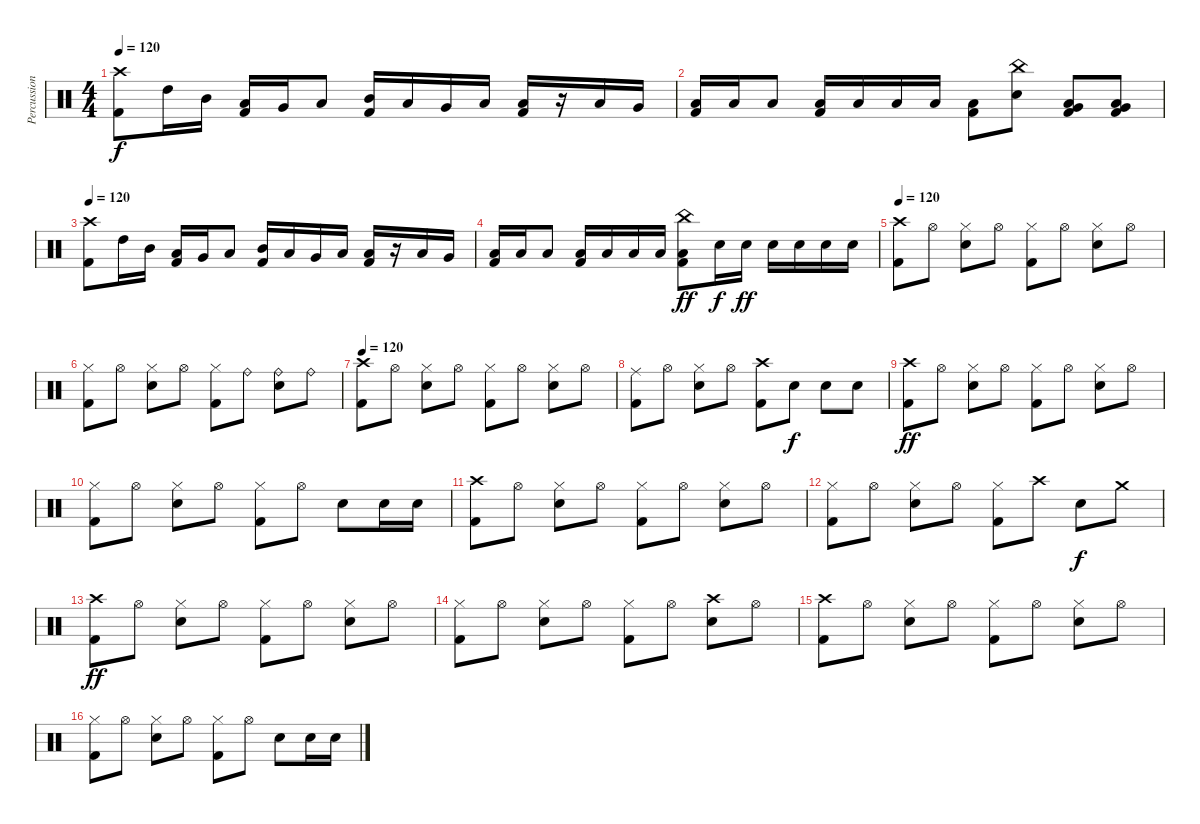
\track ("Percussion" "Percussion") {instrument percussion}
\staff {score}
\articulation defaults
\ts (4 4)
\tempo 120
\clef neutral
\ks c
("Crash high (hit)" "Kick (hit) 2").8{dy f} "High Tom (hit)".16 "Mid Tom (hit)".16 ("Low Tom (hit)" "Kick (hit) 2").16 "Very Low Tom (hit)".16 "Low Floor Tom (hit)".8 ("Mid Tom (hit)" "Kick (hit) 2").16 "Low Tom (hit)".16 "Very Low Tom (hit)".16 "Low Floor Tom (hit)".16 ("Low Floor Tom (hit)" "Kick (hit) 2").16 r.16 "Low Tom (hit)".16 "Very Low Tom (hit)".16 |
("Low Floor Tom (hit)" "Kick (hit) 2").16 "Low Floor Tom (hit)".16 "Low Floor Tom (hit)".8 ("Low Floor Tom (hit)" "Kick (hit) 2").16 "Low Floor Tom (hit)".16 "Low Floor Tom (hit)".16 "Low Floor Tom (hit)".16 ("Low Floor Tom (hit)" "Kick (hit) 2").8 ("China (hit)" "Snare (hit) 2").8 ("Very Low Tom (hit)" "Low Floor Tom (hit)" "Kick (hit) 2").8 ("Very Low Tom (hit)" "Low Floor Tom (hit)" "Kick (hit) 2").8 |
\tempo 120
("Crash high (hit)" "Kick (hit) 2").8 "High Tom (hit)".16 "Mid Tom (hit)".16 ("Low Tom (hit)" "Kick (hit) 2").16 "Very Low Tom (hit)".16 "Low Floor Tom (hit)".8 ("Mid Tom (hit)" "Kick (hit) 2").16 "Low Tom (hit)".16 "Very Low Tom (hit)".16 "Low Floor Tom (hit)".16 ("Low Floor Tom (hit)" "Kick (hit) 2").16 r.16 "Low Tom (hit)".16 "Very Low Tom (hit)".16 |
("Low Floor Tom (hit)" "Kick (hit) 2").16 "Low Floor Tom (hit)".16 "Low Floor Tom (hit)".8 ("Low Floor Tom (hit)" "Kick (hit) 2").16 "Low Floor Tom (hit)".16 "Low Floor Tom (hit)".16 "Low Floor Tom (hit)".16 ("China (hit)" "Low Floor Tom (hit)" "Kick (hit) 2").8{dy ff} "Snare (hit) 2".16{dy f} "Snare (hit) 2".16{dy ff} "Snare (hit) 2".16 "Snare (hit) 2".16 "Snare (hit) 2".16 "Snare (hit) 2".16 |
\tempo 120
("Crash high (hit)" "Kick (hit) 2").8 "Hi-Hat (open)".8 ("Hi-Hat (closed)" "Snare (hit) 2").8 "Hi-Hat (open)".8 ("Hi-Hat (closed)" "Kick (hit) 2").8 "Hi-Hat (open)".8 ("Hi-Hat (closed)" "Snare (hit) 2").8 "Hi-Hat (open)".8 |
("Hi-Hat (closed)" "Kick (hit) 2").8 "Hi-Hat (open)".8 ("Hi-Hat (closed)" "Snare (hit) 2").8 "Hi-Hat (open)".8 ("Hi-Hat (closed)" "Kick (hit) 2").8 "Ride (bell)".8 ("Ride (bell)" "Snare (hit) 2").8 "Ride (bell)".8 |
\tempo 120
("Crash high (hit)" "Kick (hit) 2").8 "Hi-Hat (open)".8 ("Hi-Hat (closed)" "Snare (hit) 2").8 "Hi-Hat (open)".8 ("Hi-Hat (closed)" "Kick (hit) 2").8 "Hi-Hat (open)".8 ("Hi-Hat (closed)" "Snare (hit) 2").8 "Hi-Hat (open)".8 |
("Ride (middle)" "Kick (hit) 2").8 "Hi-Hat (open)".8 ("Hi-Hat (closed)" "Snare (hit) 2").8 "Hi-Hat (open)".8 ("Crash high (hit)" "Kick (hit) 2").8 "Snare (hit) 2".8{dy f} "Snare (hit) 2".8 "Snare (hit) 2".8 |
("Crash high (hit)" "Kick (hit) 2").8{dy ff} "Hi-Hat (open)".8 ("Hi-Hat (closed)" "Snare (hit) 2").8 "Hi-Hat (open)".8 ("Hi-Hat (closed)" "Kick (hit) 2").8 "Hi-Hat (open)".8 ("Hi-Hat (closed)" "Snare (hit) 2").8 "Hi-Hat (open)".8 |
("Hi-Hat (closed)" "Kick (hit) 2").8 "Hi-Hat (open)".8 ("Hi-Hat (closed)" "Snare (hit) 2").8 "Hi-Hat (open)".8 ("Hi-Hat (closed)" "Kick (hit) 2").8 "Hi-Hat (open)".8 "Snare (hit) 2".8 "Snare (hit) 2".16 "Snare (hit) 2".16 |
("Crash high (hit)" "Kick (hit) 2").8 "Hi-Hat (open)".8 ("Hi-Hat (closed)" "Snare (hit) 2").8 "Hi-Hat (open)".8 ("Hi-Hat (closed)" "Kick (hit) 2").8 "Hi-Hat (open)".8 ("Hi-Hat (closed)" "Snare (hit) 2").8 "Hi-Hat (open)".8 |
("Hi-Hat (closed)" "Kick (hit) 2").8 "Hi-Hat (open)".8 ("Hi-Hat (closed)" "Snare (hit) 2").8 "Hi-Hat (open)".8 ("Hi-Hat (closed)" "Kick (hit) 2").8 "Crash high (hit)".8 "Snare (hit) 2".8{dy f} "Crash medium (hit)".8 |
("Crash high (hit)" "Kick (hit) 2").8{dy ff} "Hi-Hat (open)".8 ("Hi-Hat (closed)" "Snare (hit) 2").8 "Hi-Hat (open)".8 ("Hi-Hat (closed)" "Kick (hit) 2").8 "Hi-Hat (open)".8 ("Hi-Hat (closed)" "Snare (hit) 2").8 "Hi-Hat (open)".8 |
("Hi-Hat (closed)" "Kick (hit) 2").8 "Hi-Hat (open)".8 ("Hi-Hat (closed)" "Snare (hit) 2").8 "Hi-Hat (open)".8 ("Hi-Hat (closed)" "Kick (hit) 2").8 "Hi-Hat (open)".8 ("Crash high (hit)" "Snare (hit) 2").8 "Hi-Hat (open)".8 |
("Crash high (hit)" "Kick (hit) 2").8 "Hi-Hat (open)".8 ("Hi-Hat (closed)" "Snare (hit) 2").8 "Hi-Hat (open)".8 ("Hi-Hat (closed)" "Kick (hit) 2").8 "Hi-Hat (open)".8 ("Hi-Hat (closed)" "Snare (hit) 2").8 "Hi-Hat (open)".8 |
("Hi-Hat (closed)" "Kick (hit) 2").8 "Hi-Hat (open)".8 ("Hi-Hat (closed)" "Snare (hit) 2").8 "Hi-Hat (open)".8 ("Hi-Hat (closed)" "Kick (hit) 2").8 "Hi-Hat (open)".8 "Snare (hit) 2".8 "Snare (hit) 2".16 "Snare (hit) 2".16
